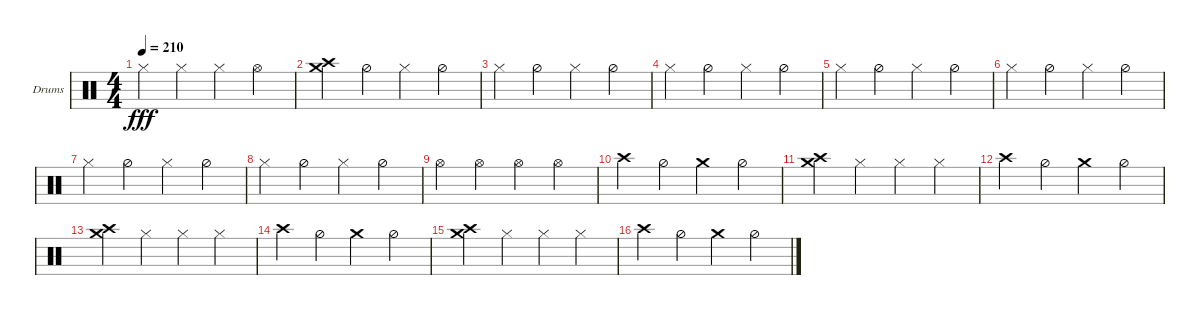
\defaultSystemsLayout 4
\bracketExtendMode groupsimilarinstruments
\firstSystemTrackNameOrientation horizontal
\otherSystemsTrackNameOrientation horizontal
\track ("Helders" "Drums") {instrument percussion}
\staff {score}
\articulation defaults
\ts (4 4)
\tempo 210
\clef neutral
\ks c "Hi-Hat (closed)".4{dy fff} "Hi-Hat (closed)".4 "Hi-Hat (closed)".4 "Hi-Hat (open)".4
|
("Crash high (hit)" "Crash medium (hit)").4 "Hi-Hat (half)".4 "Hi-Hat (closed)".4 "Hi-Hat (half)".4 |
"Hi-Hat (closed)".4 "Hi-Hat (half)".4 "Hi-Hat (closed)".4 "Hi-Hat (half)".4 |
"Hi-Hat (closed)".4 "Hi-Hat (half)".4 "Hi-Hat (closed)".4 "Hi-Hat (half)".4 |
"Hi-Hat (closed)".4 "Hi-Hat (half)".4 "Hi-Hat (closed)".4 "Hi-Hat (half)".4 |
"Hi-Hat (closed)".4 "Hi-Hat (half)".4 "Hi-Hat (closed)".4 "Hi-Hat (half)".4 |
"Hi-Hat (closed)".4 "Hi-Hat (half)".4 "Hi-Hat (closed)".4 "Hi-Hat (half)".4 |
"Hi-Hat (closed)".4 "Hi-Hat (half)".4 "Hi-Hat (closed)".4 "Hi-Hat (half)".4 |
"Hi-Hat (open)".4 "Hi-Hat (open)".4 "Hi-Hat (open)".4 "Hi-Hat (open)".4 |
"Crash high (hit)".4 "Hi-Hat (half)".4 "Crash medium (hit)".4 "Hi-Hat (half)".4 |
("Crash high (hit)" "Crash medium (hit)").4 "Hi-Hat (closed)".4 "Hi-Hat (closed)".4 "Hi-Hat (closed)".4 |
"Crash high (hit)".4 "Hi-Hat (half)".4 "Crash medium (hit)".4 "Hi-Hat (half)".4 |
("Crash high (hit)" "Crash medium (hit)").4 "Hi-Hat (closed)".4 "Hi-Hat (closed)".4 "Hi-Hat (closed)".4 |
"Crash high (hit)".4 "Hi-Hat (half)".4 "Crash medium (hit)".4 "Hi-Hat (half)".4 |
("Crash high (hit)" "Crash medium (hit)").4 "Hi-Hat (closed)".4 "Hi-Hat (closed)".4 "Hi-Hat (closed)".4 |
"Crash high (hit)".4 "Hi-Hat (half)".4 "Crash medium (hit)".4 "Hi-Hat (half)".4
